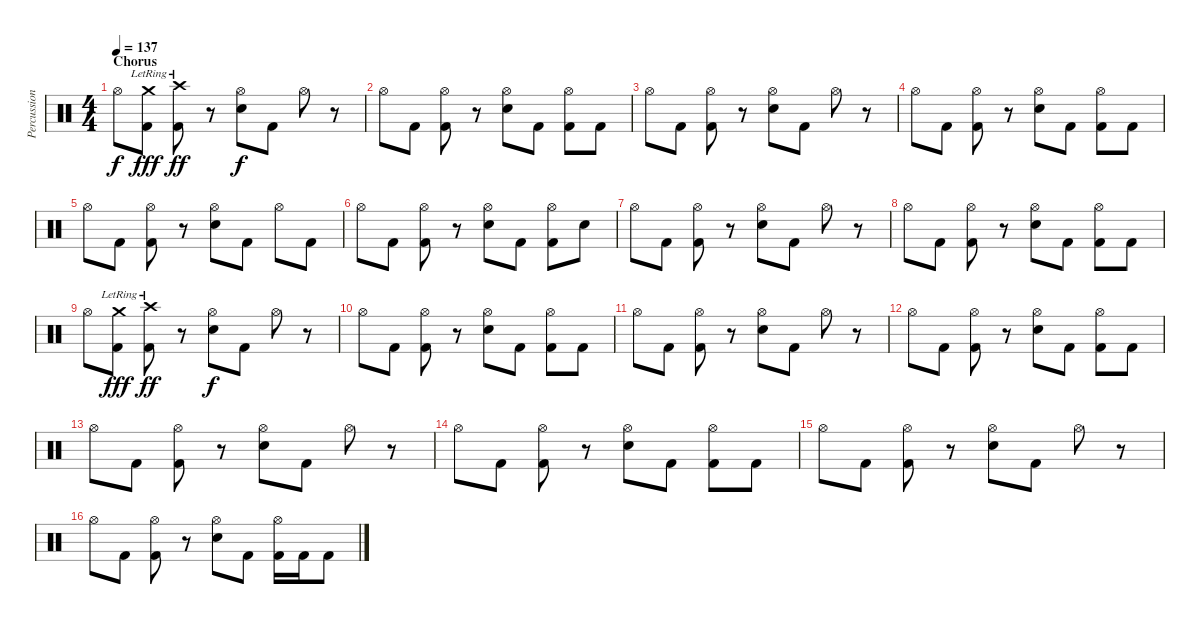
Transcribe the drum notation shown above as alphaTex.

\track ("Percussions" "Percussion") {instrument percussion}
\staff {score}
\articulation defaults
\ts (4 4)
\section ("" "Chorus")
\tempo 137
\clef neutral
\ks c "Hi-Hat (open)".8{dy f}
("Crash medium (hit)"{lr} "Kick (hit) 2").8{dy fff} ("Crash high (hit)"{lr} "Kick (hit) 2").8{dy ff} r.8 ("Hi-Hat (open)" "Electric Snare (hit)").8{dy f} "Kick (hit) 2".8 "Hi-Hat (open)".8 r.8 |
"Hi-Hat (open)".8 "Kick (hit) 2".8 ("Hi-Hat (open)" "Kick (hit) 2").8 r.8 ("Hi-Hat (open)" "Electric Snare (hit)").8 "Kick (hit) 2".8 ("Hi-Hat (open)" "Kick (hit) 2").8 "Kick (hit) 2".8 |
"Hi-Hat (open)".8 "Kick (hit) 2".8 ("Hi-Hat (open)" "Kick (hit) 2").8 r.8 ("Hi-Hat (open)" "Electric Snare (hit)").8 "Kick (hit) 2".8 "Hi-Hat (open)".8 r.8 |
"Hi-Hat (open)".8 "Kick (hit) 2".8 ("Hi-Hat (open)" "Kick (hit) 2").8 r.8 ("Hi-Hat (open)" "Electric Snare (hit)").8 "Kick (hit) 2".8 ("Hi-Hat (open)" "Kick (hit) 2").8 "Kick (hit) 2".8 |
"Hi-Hat (open)".8 "Kick (hit) 2".8 ("Hi-Hat (open)" "Kick (hit) 2").8 r.8 ("Hi-Hat (open)" "Electric Snare (hit)").8 "Kick (hit) 2".8 "Hi-Hat (open)".8 "Kick (hit) 2".8 |
"Hi-Hat (open)".8 "Kick (hit) 2".8 ("Hi-Hat (open)" "Kick (hit) 2").8 r.8 ("Hi-Hat (open)" "Electric Snare (hit)").8 "Kick (hit) 2".8 ("Hi-Hat (open)" "Kick (hit) 2").8 "Electric Snare (hit)".8 |
"Hi-Hat (open)".8 "Kick (hit) 2".8 ("Hi-Hat (open)" "Kick (hit) 2").8 r.8 ("Hi-Hat (open)" "Electric Snare (hit)").8 "Kick (hit) 2".8 "Hi-Hat (open)".8 r.8 |
"Hi-Hat (open)".8 "Kick (hit) 2".8 ("Hi-Hat (open)" "Kick (hit) 2").8 r.8 ("Hi-Hat (open)" "Electric Snare (hit)").8 "Kick (hit) 2".8 ("Hi-Hat (open)" "Kick (hit) 2").8 "Kick (hit) 2".8 |
"Hi-Hat (open)".8 ("Crash medium (hit)"{lr} "Kick (hit) 2").8{dy fff} ("Crash high (hit)"{lr} "Kick (hit) 2").8{dy ff} r.8 ("Hi-Hat (open)" "Electric Snare (hit)").8{dy f} "Kick (hit) 2".8 "Hi-Hat (open)".8 r.8 |
"Hi-Hat (open)".8 "Kick (hit) 2".8 ("Hi-Hat (open)" "Kick (hit) 2").8 r.8 ("Hi-Hat (open)" "Electric Snare (hit)").8 "Kick (hit) 2".8 ("Hi-Hat (open)" "Kick (hit) 2").8 "Kick (hit) 2".8 |
"Hi-Hat (open)".8 "Kick (hit) 2".8 ("Hi-Hat (open)" "Kick (hit) 2").8 r.8 ("Hi-Hat (open)" "Electric Snare (hit)").8 "Kick (hit) 2".8 "Hi-Hat (open)".8 r.8 |
"Hi-Hat (open)".8 "Kick (hit) 2".8 ("Hi-Hat (open)" "Kick (hit) 2").8 r.8 ("Hi-Hat (open)" "Electric Snare (hit)").8 "Kick (hit) 2".8 ("Hi-Hat (open)" "Kick (hit) 2").8 "Kick (hit) 2".8 |
"Hi-Hat (open)".8 "Kick (hit) 2".8 ("Hi-Hat (open)" "Kick (hit) 2").8 r.8 ("Hi-Hat (open)" "Electric Snare (hit)").8 "Kick (hit) 2".8 "Hi-Hat (open)".8 r.8 |
"Hi-Hat (open)".8 "Kick (hit) 2".8 ("Hi-Hat (open)" "Kick (hit) 2").8 r.8 ("Hi-Hat (open)" "Electric Snare (hit)").8 "Kick (hit) 2".8 ("Hi-Hat (open)" "Kick (hit) 2").8 "Kick (hit) 2".8 |
"Hi-Hat (open)".8 "Kick (hit) 2".8 ("Hi-Hat (open)" "Kick (hit) 2").8 r.8 ("Hi-Hat (open)" "Electric Snare (hit)").8 "Kick (hit) 2".8 "Hi-Hat (open)".8 r.8 |
"Hi-Hat (open)".8 "Kick (hit) 2".8 ("Hi-Hat (open)" "Kick (hit) 2").8 r.8 ("Hi-Hat (open)" "Electric Snare (hit)").8 "Kick (hit) 2".8 ("Hi-Hat (open)" "Kick (hit) 2").16 "Kick (hit) 2".16 "Kick (hit) 2".8
